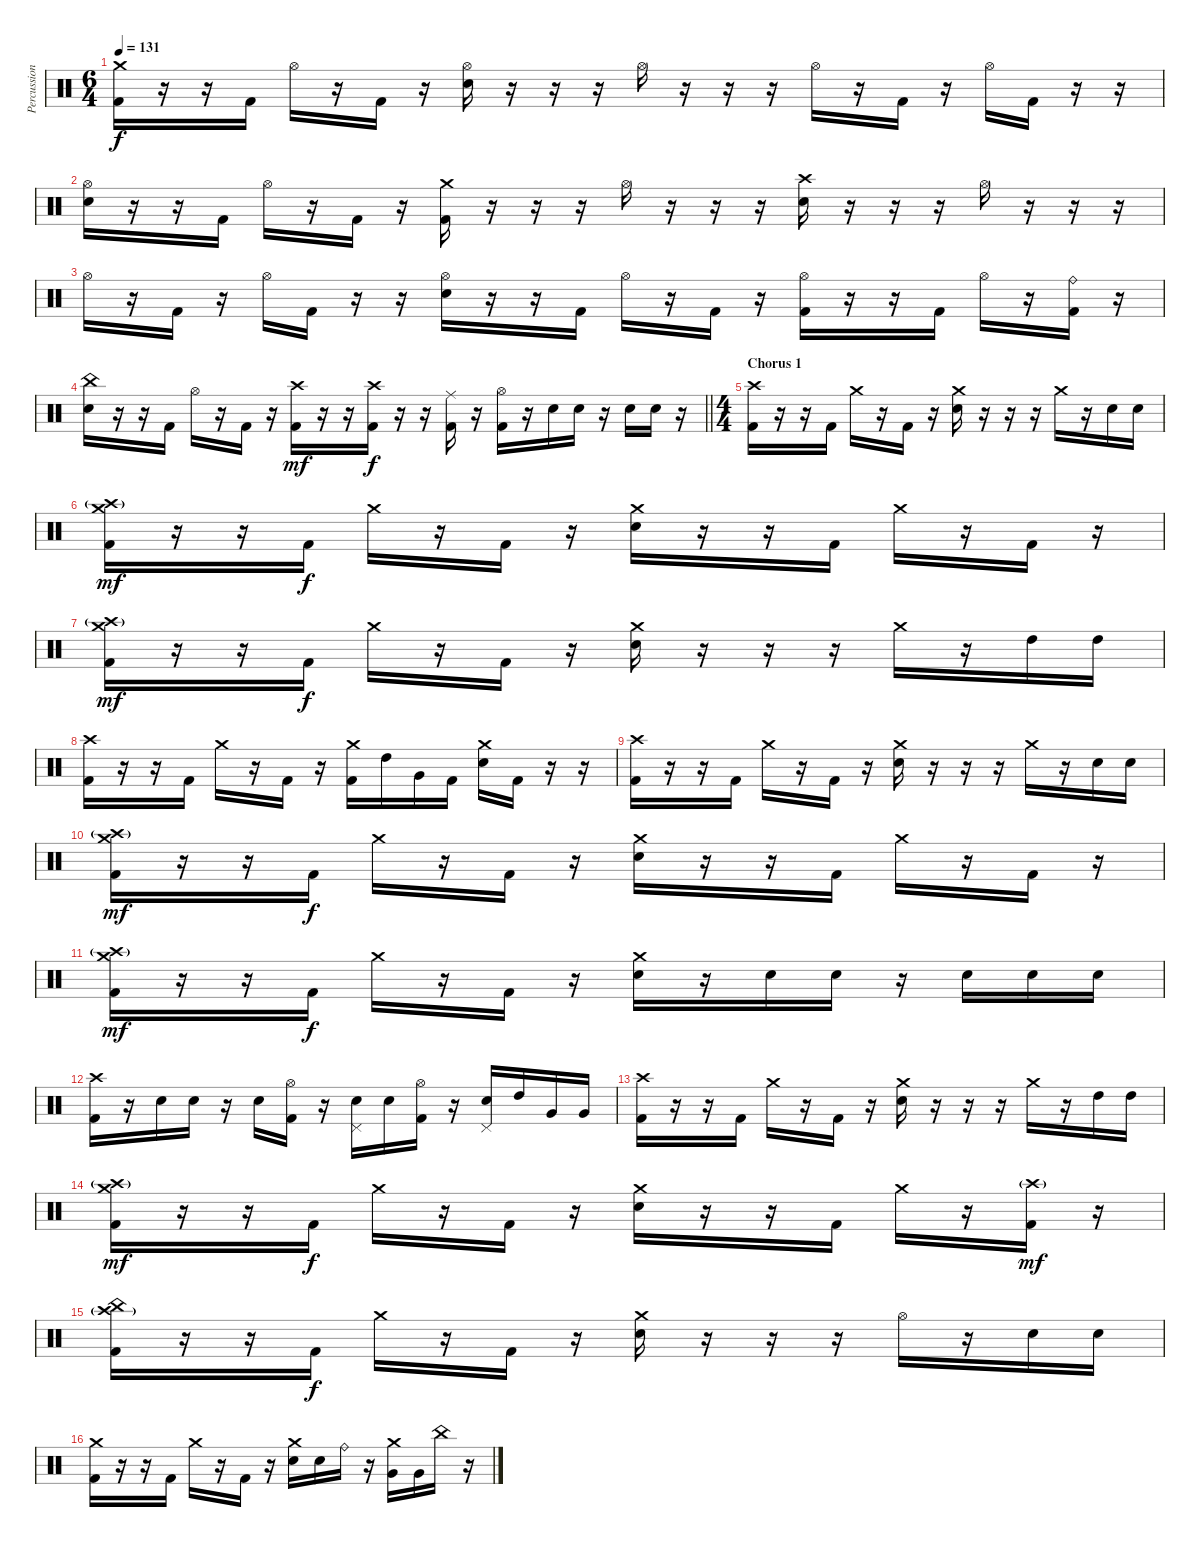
\track ("Percussion" "Percussion") {instrument percussion}
\staff {score}
\articulation defaults
\ts (6 4)
\tempo 131
\clef neutral
\ks c
("Crash medium (hit)" "Kick (hit) 2").16{dy f} r.16 r.16 "Kick (hit) 2".16 "Hi-Hat (open)".16 r.16 "Kick (hit) 2".16 r.16 ("Hi-Hat (open)" "Snare (hit) 2").16 r.16 r.16 r.16 "Hi-Hat (open)".16 r.16 r.16 r.16 "Hi-Hat (open)".16 r.16 "Kick (hit) 2".16 r.16 "Hi-Hat (open)".16 "Kick (hit) 2".16 r.16 r.16 |
("Hi-Hat (open)" "Snare (hit) 2").16 r.16 r.16 "Kick (hit) 2".16 "Hi-Hat (open)".16 r.16 "Kick (hit) 2".16 r.16 ("Crash medium (hit)" "Kick (hit) 2").16 r.16 r.16 r.16 "Hi-Hat (open)".16 r.16 r.16 r.16 ("Crash high (hit)" "Snare (hit) 2").16 r.16 r.16 r.16 "Hi-Hat (open)".16 r.16 r.16 r.16 |
"Hi-Hat (open)".16 r.16 "Kick (hit) 2".16 r.16 "Hi-Hat (open)".16 "Kick (hit) 2".16 r.16 r.16 ("Hi-Hat (open)" "Snare (hit) 2").16 r.16 r.16 "Kick (hit) 2".16 "Hi-Hat (open)".16 r.16 "Kick (hit) 2".16 r.16 ("Hi-Hat (open)" "Kick (hit) 2").16 r.16 r.16 "Kick (hit) 2".16 "Hi-Hat (open)".16 r.16 ("Ride (bell)" "Kick (hit) 2").16 r.16 |
\barLineRight lightlight
("China (hit)" "Snare (hit) 2").16 r.16 r.16 "Kick (hit) 2".16 "Hi-Hat (open)".16 r.16 "Kick (hit) 2".16 r.16 ("Crash high (hit)" "Kick (hit) 2").16{dy mf} r.16 r.16 ("Crash high (hit)" "Kick (hit) 2").16{dy f} r.16 r.16 ("Ride (middle)" "Kick (hit) 2").16 r.16 ("Hi-Hat (open)" "Kick (hit) 2").16 r.16 "Snare (hit) 2".16 "Snare (hit) 2".16 r.16 "Snare (hit) 2".16 "Snare (hit) 2".16 r.16 |
\ts (4 4)
\section ("" "Chorus 1")
("Crash high (hit)" "Kick (hit) 2").16 r.16 r.16 "Kick (hit) 2".16 "Crash medium (hit)".16 r.16 "Kick (hit) 2".16 r.16 ("Crash medium (hit)" "Snare (hit) 2").16 r.16 r.16 r.16 "Crash medium (hit)".16 r.16 "Snare (hit) 2".16 "Snare (hit) 2".16 |
("Crash medium (hit)" "Crash high (hit)"{g} "Kick (hit) 2").16{dy mf} r.16 r.16 "Kick (hit) 2".16{dy f} "Crash medium (hit)".16 r.16 "Kick (hit) 2".16 r.16 ("Crash medium (hit)" "Snare (hit) 2").16 r.16 r.16 "Kick (hit) 2".16 "Crash medium (hit)".16 r.16 "Kick (hit) 2".16 r.16 |
("Crash medium (hit)" "Crash high (hit)"{g} "Kick (hit) 2").16{dy mf} r.16 r.16 "Kick (hit) 2".16{dy f} "Crash medium (hit)".16 r.16 "Kick (hit) 2".16 r.16 ("Crash medium (hit)" "Snare (hit) 2").16 r.16 r.16 r.16 "Crash medium (hit)".16 r.16 "High Tom (hit)".16 "High Tom (hit)".16 |
("Crash high (hit)" "Kick (hit) 2").16 r.16 r.16 "Kick (hit) 2".16 "Crash medium (hit)".16 r.16 "Kick (hit) 2".16 r.16 ("Crash medium (hit)" "Kick (hit) 2").16 "High Tom (hit)".16 "Very Low Tom (hit)".16 "Kick (hit) 2".16 ("Crash medium (hit)" "Snare (hit) 2").16 "Kick (hit) 2".16 r.16 r.16 |
("Crash high (hit)" "Kick (hit) 2").16 r.16 r.16 "Kick (hit) 2".16 "Crash medium (hit)".16 r.16 "Kick (hit) 2".16 r.16 ("Crash medium (hit)" "Snare (hit) 2").16 r.16 r.16 r.16 "Crash medium (hit)".16 r.16 "Snare (hit) 2".16 "Snare (hit) 2".16 |
("Crash medium (hit)" "Crash high (hit)"{g} "Kick (hit) 2").16{dy mf} r.16 r.16 "Kick (hit) 2".16{dy f} "Crash medium (hit)".16 r.16 "Kick (hit) 2".16 r.16 ("Crash medium (hit)" "Snare (hit) 2").16 r.16 r.16 "Kick (hit) 2".16 "Crash medium (hit)".16 r.16 "Kick (hit) 2".16 r.16 |
("Crash medium (hit)" "Crash high (hit)"{g} "Kick (hit) 2").16{dy mf} r.16 r.16 "Kick (hit) 2".16{dy f} "Crash medium (hit)".16 r.16 "Kick (hit) 2".16 r.16 ("Crash medium (hit)" "Snare (hit) 2").16 r.16 "Snare (hit) 2".16 "Snare (hit) 2".16 r.16 "Snare (hit) 2".16 "Snare (hit) 2".16 "Snare (hit) 2".16 |
("Crash high (hit)" "Kick (hit) 2").16 r.16 "Snare (hit) 2".16 "Snare (hit) 2".16 r.16 "Snare (hit) 2".16 ("Hi-Hat (open)" "Kick (hit) 2").16 r.16 ("Pedal Hi-Hat (hit)" "Snare (hit) 2").16 "Snare (hit) 2".16 ("Hi-Hat (open)" "Kick (hit) 2").16 r.16 ("Pedal Hi-Hat (hit)" "Snare (hit) 2").16 "High Tom (hit)".16 "Very Low Tom (hit)".16 "Very Low Tom (hit)".16 |
("Crash high (hit)" "Kick (hit) 2").16 r.16 r.16 "Kick (hit) 2".16 "Crash medium (hit)".16 r.16 "Kick (hit) 2".16 r.16 ("Crash medium (hit)" "Snare (hit) 2").16 r.16 r.16 r.16 "Crash medium (hit)".16 r.16 "High Tom (hit)".16 "High Tom (hit)".16 |
("Crash medium (hit)" "Crash high (hit)"{g} "Kick (hit) 2").16{dy mf} r.16 r.16 "Kick (hit) 2".16{dy f} "Crash medium (hit)".16 r.16 "Kick (hit) 2".16 r.16 ("Crash medium (hit)" "Snare (hit) 2").16 r.16 r.16 "Kick (hit) 2".16 "Crash medium (hit)".16 r.16 ("Crash high (hit)"{g} "Kick (hit) 2").16{dy mf} r.16 |
("China (hit)" "Crash high (hit)"{g} "Kick (hit) 2").16 r.16 r.16 "Kick (hit) 2".16{dy f} "Crash medium (hit)".16 r.16 "Kick (hit) 2".16 r.16 ("Crash medium (hit)" "Snare (hit) 2").16 r.16 r.16 r.16 "Hi-Hat (open)".16 r.16 "Snare (hit) 2".16 "Snare (hit) 2".16 |
("Crash medium (hit)" "Kick (hit) 2").16 r.16 r.16 "Kick (hit) 2".16 "Crash medium (hit)".16 r.16 "Kick (hit) 2".16 r.16 ("Crash medium (hit)" "Snare (hit) 2").16 "Snare (hit) 2".16 "Ride (bell)".16 r.16 ("Crash medium (hit)" "Very Low Tom (hit)").16 "Very Low Tom (hit)".16 "China (hit)".16 r.16
